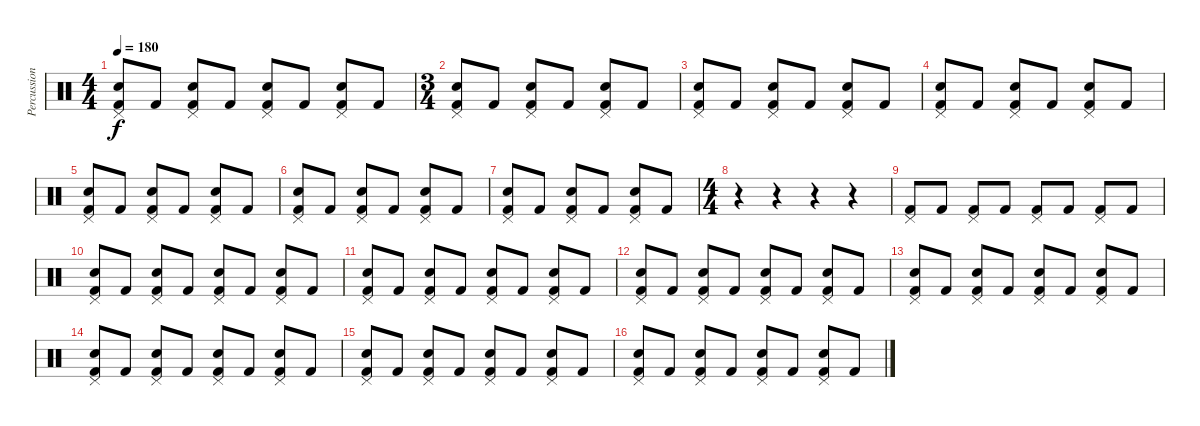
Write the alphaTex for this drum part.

\track ("Percussion" "Percussion") {instrument percussion}
\staff {score}
\articulation defaults
\ts (4 4)
\tempo 180
\clef neutral
\ks c
("Snare (hit) 2" "Pedal Hi-Hat (hit)" "Kick (hit) 2").8{dy f} "Kick (hit) 2".8 ("Snare (hit) 2" "Pedal Hi-Hat (hit)" "Kick (hit) 2").8 "Kick (hit) 2".8 ("Snare (hit) 2" "Pedal Hi-Hat (hit)" "Kick (hit) 2").8 "Kick (hit) 2".8 ("Snare (hit) 2" "Pedal Hi-Hat (hit)" "Kick (hit) 2").8 "Kick (hit) 2".8 |
\ts (3 4)
("Snare (hit) 2" "Pedal Hi-Hat (hit)" "Kick (hit) 2").8 "Kick (hit) 2".8 ("Snare (hit) 2" "Pedal Hi-Hat (hit)" "Kick (hit) 2").8 "Kick (hit) 2".8 ("Snare (hit) 2" "Pedal Hi-Hat (hit)" "Kick (hit) 2").8 "Kick (hit) 2".8 |
("Snare (hit) 2" "Pedal Hi-Hat (hit)" "Kick (hit) 2").8 "Kick (hit) 2".8 ("Snare (hit) 2" "Pedal Hi-Hat (hit)" "Kick (hit) 2").8 "Kick (hit) 2".8 ("Snare (hit) 2" "Pedal Hi-Hat (hit)" "Kick (hit) 2").8 "Kick (hit) 2".8 |
("Snare (hit) 2" "Pedal Hi-Hat (hit)" "Kick (hit) 2").8 "Kick (hit) 2".8 ("Snare (hit) 2" "Pedal Hi-Hat (hit)" "Kick (hit) 2").8 "Kick (hit) 2".8 ("Snare (hit) 2" "Pedal Hi-Hat (hit)" "Kick (hit) 2").8 "Kick (hit) 2".8 |
("Snare (hit) 2" "Pedal Hi-Hat (hit)" "Kick (hit) 2").8 "Kick (hit) 2".8 ("Snare (hit) 2" "Pedal Hi-Hat (hit)" "Kick (hit) 2").8 "Kick (hit) 2".8 ("Snare (hit) 2" "Pedal Hi-Hat (hit)" "Kick (hit) 2").8 "Kick (hit) 2".8 |
("Snare (hit) 2" "Pedal Hi-Hat (hit)" "Kick (hit) 2").8 "Kick (hit) 2".8 ("Snare (hit) 2" "Pedal Hi-Hat (hit)" "Kick (hit) 2").8 "Kick (hit) 2".8 ("Snare (hit) 2" "Pedal Hi-Hat (hit)" "Kick (hit) 2").8 "Kick (hit) 2".8 |
("Snare (hit) 2" "Pedal Hi-Hat (hit)" "Kick (hit) 2").8 "Kick (hit) 2".8 ("Snare (hit) 2" "Pedal Hi-Hat (hit)" "Kick (hit) 2").8 "Kick (hit) 2".8 ("Snare (hit) 2" "Pedal Hi-Hat (hit)" "Kick (hit) 2").8 "Kick (hit) 2".8 |
\ts (4 4)
r.4 r.4 r.4 r.4 |
("Pedal Hi-Hat (hit)" "Kick (hit) 2").8 "Kick (hit) 2".8 ("Pedal Hi-Hat (hit)" "Kick (hit) 2").8 "Kick (hit) 2".8 ("Pedal Hi-Hat (hit)" "Kick (hit) 2").8 "Kick (hit) 2".8 ("Pedal Hi-Hat (hit)" "Kick (hit) 2").8 "Kick (hit) 2".8 |
("Snare (hit) 2" "Pedal Hi-Hat (hit)" "Kick (hit) 2").8 "Kick (hit) 2".8 ("Snare (hit) 2" "Pedal Hi-Hat (hit)" "Kick (hit) 2").8 "Kick (hit) 2".8 ("Snare (hit) 2" "Pedal Hi-Hat (hit)" "Kick (hit) 2").8 "Kick (hit) 2".8 ("Snare (hit) 2" "Pedal Hi-Hat (hit)" "Kick (hit) 2").8 "Kick (hit) 2".8 |
("Snare (hit) 2" "Pedal Hi-Hat (hit)" "Kick (hit) 2").8 "Kick (hit) 2".8 ("Snare (hit) 2" "Pedal Hi-Hat (hit)" "Kick (hit) 2").8 "Kick (hit) 2".8 ("Snare (hit) 2" "Pedal Hi-Hat (hit)" "Kick (hit) 2").8 "Kick (hit) 2".8 ("Snare (hit) 2" "Pedal Hi-Hat (hit)" "Kick (hit) 2").8 "Kick (hit) 2".8 |
("Snare (hit) 2" "Pedal Hi-Hat (hit)" "Kick (hit) 2").8 "Kick (hit) 2".8 ("Snare (hit) 2" "Pedal Hi-Hat (hit)" "Kick (hit) 2").8 "Kick (hit) 2".8 ("Snare (hit) 2" "Pedal Hi-Hat (hit)" "Kick (hit) 2").8 "Kick (hit) 2".8 ("Snare (hit) 2" "Pedal Hi-Hat (hit)" "Kick (hit) 2").8 "Kick (hit) 2".8 |
("Snare (hit) 2" "Pedal Hi-Hat (hit)" "Kick (hit) 2").8 "Kick (hit) 2".8 ("Snare (hit) 2" "Pedal Hi-Hat (hit)" "Kick (hit) 2").8 "Kick (hit) 2".8 ("Snare (hit) 2" "Pedal Hi-Hat (hit)" "Kick (hit) 2").8 "Kick (hit) 2".8 ("Snare (hit) 2" "Pedal Hi-Hat (hit)" "Kick (hit) 2").8 "Kick (hit) 2".8 |
("Snare (hit) 2" "Pedal Hi-Hat (hit)" "Kick (hit) 2").8 "Kick (hit) 2".8 ("Snare (hit) 2" "Pedal Hi-Hat (hit)" "Kick (hit) 2").8 "Kick (hit) 2".8 ("Snare (hit) 2" "Pedal Hi-Hat (hit)" "Kick (hit) 2").8 "Kick (hit) 2".8 ("Snare (hit) 2" "Pedal Hi-Hat (hit)" "Kick (hit) 2").8 "Kick (hit) 2".8 |
("Snare (hit) 2" "Pedal Hi-Hat (hit)" "Kick (hit) 2").8 "Kick (hit) 2".8 ("Snare (hit) 2" "Pedal Hi-Hat (hit)" "Kick (hit) 2").8 "Kick (hit) 2".8 ("Snare (hit) 2" "Pedal Hi-Hat (hit)" "Kick (hit) 2").8 "Kick (hit) 2".8 ("Snare (hit) 2" "Pedal Hi-Hat (hit)" "Kick (hit) 2").8 "Kick (hit) 2".8 |
("Snare (hit) 2" "Pedal Hi-Hat (hit)" "Kick (hit) 2").8 "Kick (hit) 2".8 ("Snare (hit) 2" "Pedal Hi-Hat (hit)" "Kick (hit) 2").8 "Kick (hit) 2".8 ("Snare (hit) 2" "Pedal Hi-Hat (hit)" "Kick (hit) 2").8 "Kick (hit) 2".8 ("Snare (hit) 2" "Pedal Hi-Hat (hit)" "Kick (hit) 2").8 "Kick (hit) 2".8
